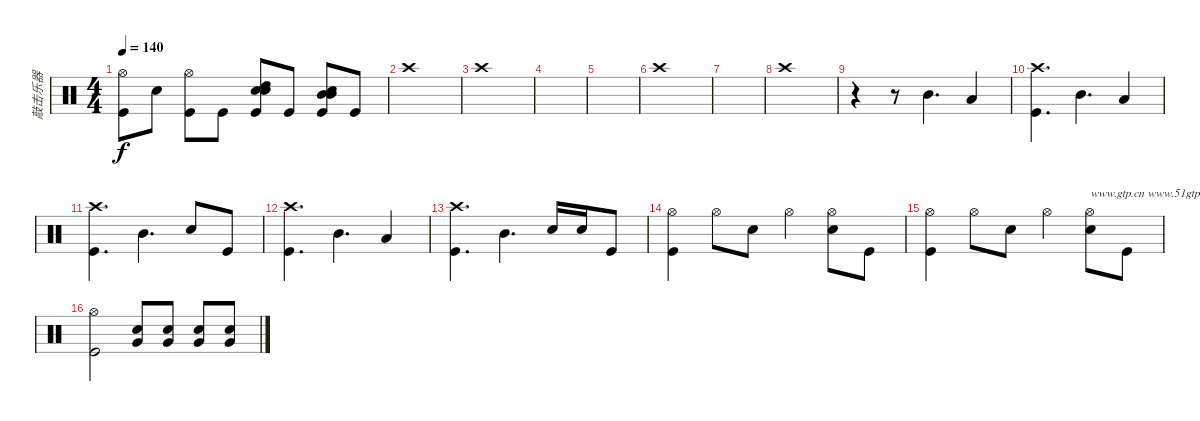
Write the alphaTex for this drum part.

\track ("敲击乐器" "敲击乐器") {instrument percussion}
\staff {score}
\articulation defaults
\ts (4 4)
\tempo 140
\clef neutral
\ks c
("Hi-Hat (open)" "Kick (hit)").8{dy f} "Snare (hit) 2".8 ("Kick (hit)" "Hi-Hat (open)").8 "Kick (hit)".8 ("Kick (hit)" "Snare (hit) 2" "Snare (hit) 2" "High Tom (hit)").8 "Kick (hit)".8 ("Kick (hit)" "Mid Tom (hit)" "Mid Tom (hit)" "Snare (hit) 2").8 "Kick (hit)".8 |
"Crash high (hit)".1 |
"Crash high (hit)".1 |
|
|
"Crash high (hit)".1 |
|
"Crash high (hit)".1 |
r.4 r.8 "Mid Tom (hit)".4{d} "Low Tom (hit)".4 |
("Kick (hit)" "Crash high (hit)").4{d} "Mid Tom (hit)".4{d} "Low Tom (hit)".4 |
("Kick (hit)" "Crash high (hit)").4{d} "Mid Tom (hit)".4{d} "Snare (hit) 2".8 "Kick (hit)".8 |
("Kick (hit)" "Crash high (hit)").4{d} "Mid Tom (hit)".4{d} "Low Tom (hit)".4 |
("Kick (hit)" "Crash high (hit)").4{d} "Mid Tom (hit)".4{d} "Snare (hit) 2".16 "Snare (hit) 2".16 "Kick (hit)".8 |
("Kick (hit)" "Hi-Hat (open)").4 "Hi-Hat (open)".8 "Snare (hit) 2".8 "Hi-Hat (open)".4 ("Hi-Hat (open)" "Snare (hit) 2").8 "Kick (hit)".8 |
("Kick (hit)" "Hi-Hat (open)").4 "Hi-Hat (open)".8 "Snare (hit) 2".8 "Hi-Hat (open)".4 ("Hi-Hat (open)" "Snare (hit) 2").8{txt "www.gtp.cn www.51gtp.com联合为您提供优秀的GTP!"} "Kick (hit)".8 |
("Hi-Hat (open)" "Kick (hit)").2 ("Very Low Tom (hit)" "Snare (hit) 2").8 ("Snare (hit) 2" "Very Low Tom (hit)").8 ("Snare (hit) 2" "Very Low Tom (hit)").8 ("Snare (hit) 2" "Very Low Tom (hit)").8
